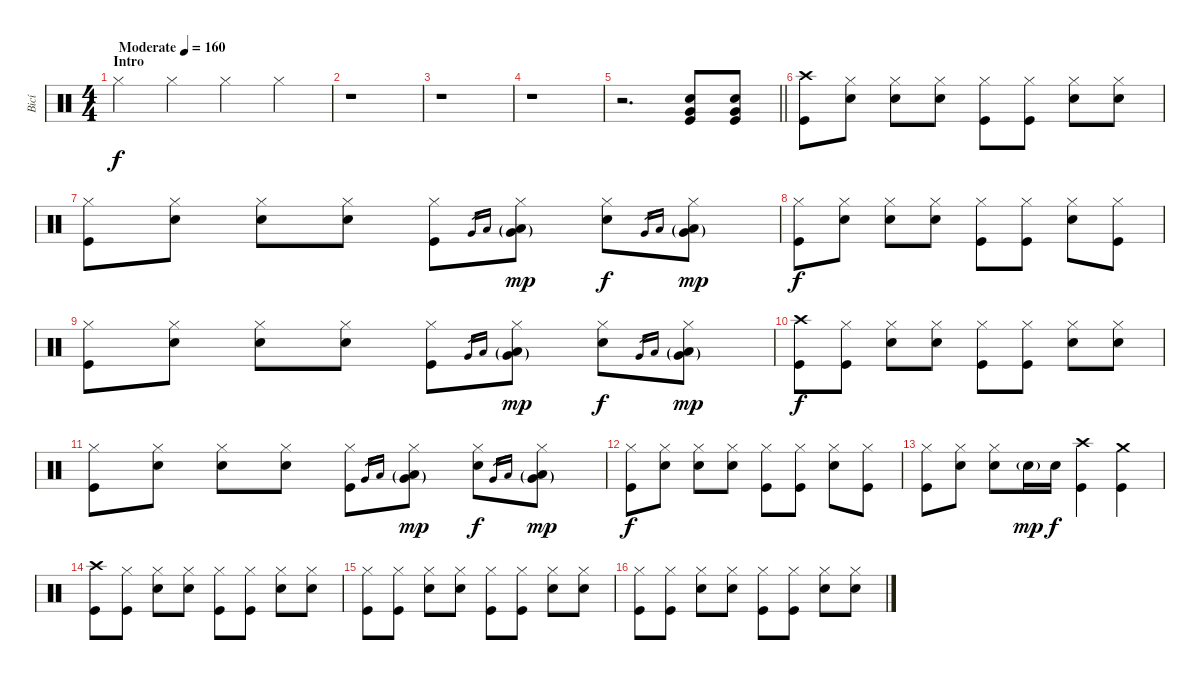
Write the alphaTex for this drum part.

\track ("Bicí" "Bicí") {instrument percussion}
\staff {score}
\articulation defaults
\ts (4 4)
\section ("" "Intro")
\tempo (160 "Moderate")
\clef neutral
\ks c "Hi-Hat (closed)".4{dy f} "Hi-Hat (closed)".4 "Hi-Hat (closed)".4 "Hi-Hat (closed)".4
|
r.1 |
r.1 |
r.1 |
\barLineRight lightlight
r.2{d} ("Very Low Tom (hit)" "Electric Snare (hit)" "Kick (hit)").8 ("Very Low Tom (hit)" "Electric Snare (hit)" "Kick (hit)").8 |
\section ("" "")
("Crash high (hit)" "Kick (hit)").8 ("Hi-Hat (closed)" "Snare (hit)").8 ("Hi-Hat (closed)" "Electric Snare (hit)").8 ("Hi-Hat (closed)" "Snare (hit)").8 ("Hi-Hat (closed)" "Kick (hit)").8 ("Hi-Hat (closed)" "Kick (hit)").8 ("Hi-Hat (closed)" "Electric Snare (hit)").8 ("Hi-Hat (closed)" "Snare (hit)").8 |
("Hi-Hat (closed)" "Kick (hit)").8 ("Hi-Hat (closed)" "Snare (hit)").8 ("Hi-Hat (closed)" "Electric Snare (hit)").8 ("Hi-Hat (closed)" "Snare (hit)").8 ("Hi-Hat (closed)" "Kick (hit)").8 "Very Low Tom (hit)".16{gr} "Low Floor Tom (hit)".16{gr} ("Hi-Hat (closed)" "Very Low Tom (hit)"{g} "Low Floor Tom (hit)"{g}).8{dy mp} ("Hi-Hat (closed)" "Electric Snare (hit)").8{dy f} "Very Low Tom (hit)".16{gr} "Low Floor Tom (hit)".16{gr} ("Hi-Hat (closed)" "Very Low Tom (hit)"{g} "Low Floor Tom (hit)"{g}).8{dy mp} |
("Hi-Hat (closed)" "Kick (hit)").8{dy f} ("Hi-Hat (closed)" "Snare (hit)").8 ("Hi-Hat (closed)" "Electric Snare (hit)").8 ("Hi-Hat (closed)" "Snare (hit)").8 ("Hi-Hat (closed)" "Kick (hit)").8 ("Hi-Hat (closed)" "Kick (hit)").8 ("Hi-Hat (closed)" "Electric Snare (hit)").8 ("Hi-Hat (closed)" "Kick (hit)").8 |
("Hi-Hat (closed)" "Kick (hit)").8 ("Hi-Hat (closed)" "Snare (hit)").8 ("Hi-Hat (closed)" "Electric Snare (hit)").8 ("Hi-Hat (closed)" "Snare (hit)").8 ("Hi-Hat (closed)" "Kick (hit)").8 "Very Low Tom (hit)".16{gr} "Low Floor Tom (hit)".16{gr} ("Hi-Hat (closed)" "Very Low Tom (hit)"{g} "Low Floor Tom (hit)"{g}).8{dy mp} ("Hi-Hat (closed)" "Electric Snare (hit)").8{dy f} "Very Low Tom (hit)".16{gr} "Low Floor Tom (hit)".16{gr} ("Hi-Hat (closed)" "Very Low Tom (hit)"{g} "Low Floor Tom (hit)"{g}).8{dy mp} |
("Crash high (hit)" "Kick (hit)").8{dy f} ("Hi-Hat (closed)" "Kick (hit)").8 ("Hi-Hat (closed)" "Electric Snare (hit)").8 ("Hi-Hat (closed)" "Snare (hit)").8 ("Hi-Hat (closed)" "Kick (hit)").8 ("Hi-Hat (closed)" "Kick (hit)").8 ("Hi-Hat (closed)" "Electric Snare (hit)").8 ("Hi-Hat (closed)" "Snare (hit)").8 |
("Hi-Hat (closed)" "Kick (hit)").8 ("Hi-Hat (closed)" "Snare (hit)").8 ("Hi-Hat (closed)" "Electric Snare (hit)").8 ("Hi-Hat (closed)" "Snare (hit)").8 ("Hi-Hat (closed)" "Kick (hit)").8 "Very Low Tom (hit)".16{gr} "Low Floor Tom (hit)".16{gr} ("Hi-Hat (closed)" "Very Low Tom (hit)"{g} "Low Floor Tom (hit)"{g}).8{dy mp} ("Hi-Hat (closed)" "Electric Snare (hit)").8{dy f} "Very Low Tom (hit)".16{gr} "Low Floor Tom (hit)".16{gr} ("Hi-Hat (closed)" "Very Low Tom (hit)"{g} "Low Floor Tom (hit)"{g}).8{dy mp} |
("Hi-Hat (closed)" "Kick (hit)").8{dy f} ("Hi-Hat (closed)" "Snare (hit)").8 ("Hi-Hat (closed)" "Electric Snare (hit)").8 ("Hi-Hat (closed)" "Snare (hit)").8 ("Hi-Hat (closed)" "Kick (hit)").8 ("Hi-Hat (closed)" "Kick (hit)").8 ("Hi-Hat (closed)" "Electric Snare (hit)").8 ("Hi-Hat (closed)" "Kick (hit)").8 |
("Hi-Hat (closed)" "Kick (hit)").8 ("Hi-Hat (closed)" "Snare (hit)").8 ("Hi-Hat (closed)" "Electric Snare (hit)").8 "Electric Snare (hit)"{g}.16{dy mp} "Electric Snare (hit)".16{dy f} ("Crash high (hit)" "Kick (hit)").4 ("Crash medium (hit)" "Kick (hit)").4 |
("Crash high (hit)" "Kick (hit)").8 ("Hi-Hat (closed)" "Kick (hit)").8 ("Hi-Hat (closed)" "Electric Snare (hit)").8 ("Hi-Hat (closed)" "Snare (hit)").8 ("Hi-Hat (closed)" "Kick (hit)").8 ("Hi-Hat (closed)" "Kick (hit)").8 ("Hi-Hat (closed)" "Electric Snare (hit)").8 ("Hi-Hat (closed)" "Snare (hit)").8 |
("Hi-Hat (closed)" "Kick (hit)").8 ("Hi-Hat (closed)" "Kick (hit)").8 ("Hi-Hat (closed)" "Electric Snare (hit)").8 ("Hi-Hat (closed)" "Snare (hit)").8 ("Hi-Hat (closed)" "Kick (hit)").8 ("Hi-Hat (closed)" "Kick (hit)").8 ("Hi-Hat (closed)" "Electric Snare (hit)").8 ("Hi-Hat (closed)" "Snare (hit)").8 |
("Hi-Hat (closed)" "Kick (hit)").8 ("Hi-Hat (closed)" "Kick (hit)").8 ("Hi-Hat (closed)" "Electric Snare (hit)").8 ("Hi-Hat (closed)" "Snare (hit)").8 ("Hi-Hat (closed)" "Kick (hit)").8 ("Hi-Hat (closed)" "Kick (hit)").8 ("Hi-Hat (closed)" "Electric Snare (hit)").8 ("Hi-Hat (closed)" "Snare (hit)").8
